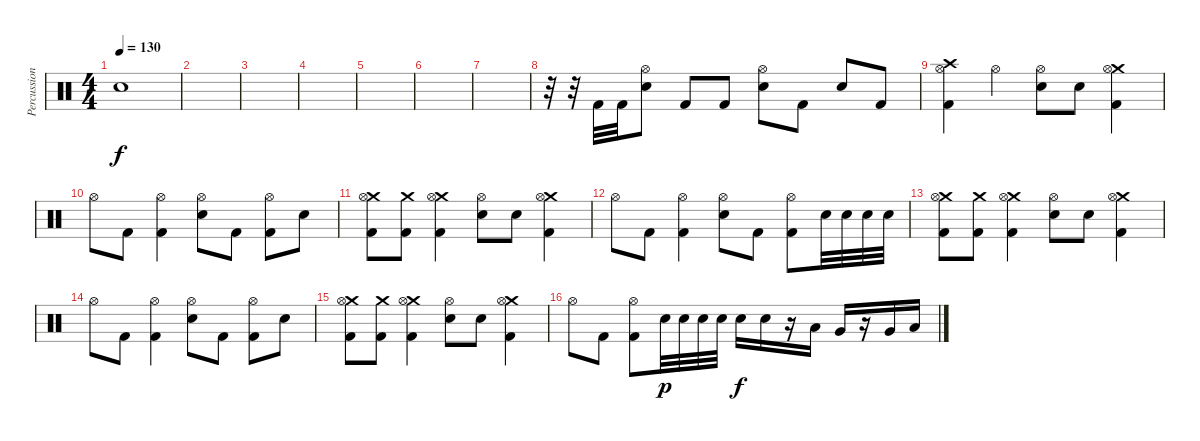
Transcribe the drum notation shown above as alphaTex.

\track ("Percussion" "Percussion") {instrument percussion}
\staff {score}
\articulation defaults
\ts (4 4)
\tempo 130
\clef neutral
\ks c "Electric Snare (hit)".1{dy f}
|
|
|
|
|
|
|
r.32 r.32 "Kick (hit) 2".32 "Kick (hit) 2".32 ("Hi-Hat (open)" "Electric Snare (hit)").8 "Kick (hit) 2".8 "Kick (hit) 2".8 ("Hi-Hat (open)" "Electric Snare (hit)").8 "Kick (hit) 2".8 "Electric Snare (hit)".8 "Kick (hit) 2".8 |
("Crash high (hit)" "Hi-Hat (open)" "Kick (hit) 2").4 "Hi-Hat (open)".4 ("Hi-Hat (open)" "Electric Snare (hit)").8 "Electric Snare (hit)".8 ("Crash medium (hit)" "Hi-Hat (open)" "Kick (hit) 2").4 |
"Hi-Hat (open)".8 "Kick (hit) 2".8 ("Hi-Hat (open)" "Kick (hit) 2").4 ("Hi-Hat (open)" "Electric Snare (hit)").8 "Kick (hit) 2".8 ("Hi-Hat (open)" "Kick (hit) 2").8 "Electric Snare (hit)".8 |
("Crash medium (hit)" "Hi-Hat (open)" "Kick (hit) 2").8 ("Crash medium (hit)" "Kick (hit) 2").8 ("Crash medium (hit)" "Hi-Hat (open)" "Kick (hit) 2").4 ("Hi-Hat (open)" "Electric Snare (hit)").8 "Electric Snare (hit)".8 ("Crash medium (hit)" "Hi-Hat (open)" "Kick (hit) 2").4 |
"Hi-Hat (open)".8 "Kick (hit) 2".8 ("Hi-Hat (open)" "Kick (hit) 2").4 ("Hi-Hat (open)" "Electric Snare (hit)").8 "Kick (hit) 2".8 ("Hi-Hat (open)" "Kick (hit) 2").8 "Electric Snare (hit)".32 "Electric Snare (hit)".32 "Electric Snare (hit)".32 "Electric Snare (hit)".32 |
("Crash medium (hit)" "Hi-Hat (open)" "Kick (hit) 2").8 ("Crash medium (hit)" "Kick (hit) 2").8 ("Crash medium (hit)" "Hi-Hat (open)" "Kick (hit) 2").4 ("Hi-Hat (open)" "Electric Snare (hit)").8 "Electric Snare (hit)".8 ("Crash medium (hit)" "Hi-Hat (open)" "Kick (hit) 2").4 |
"Hi-Hat (open)".8 "Kick (hit) 2".8 ("Hi-Hat (open)" "Kick (hit) 2").4 ("Hi-Hat (open)" "Electric Snare (hit)").8 "Kick (hit) 2".8 ("Hi-Hat (open)" "Kick (hit) 2").8 "Electric Snare (hit)".8 |
("Crash medium (hit)" "Hi-Hat (open)" "Kick (hit) 2").8 ("Crash medium (hit)" "Kick (hit) 2").8 ("Crash medium (hit)" "Hi-Hat (open)" "Kick (hit) 2").4 ("Hi-Hat (open)" "Electric Snare (hit)").8 "Electric Snare (hit)".8 ("Crash medium (hit)" "Hi-Hat (open)" "Kick (hit) 2").4 |
"Hi-Hat (open)".8 "Kick (hit) 2".8 ("Hi-Hat (open)" "Kick (hit) 2").8 "Electric Snare (hit)".32{dy p} "Electric Snare (hit)".32 "Electric Snare (hit)".32 "Electric Snare (hit)".32 "Electric Snare (hit)".16{dy f} "Electric Snare (hit)".16 r.16 "Low Tom (hit)".16 "Very Low Tom (hit)".16 r.16 "Very Low Tom (hit)".16 "Low Floor Tom (hit)".16
